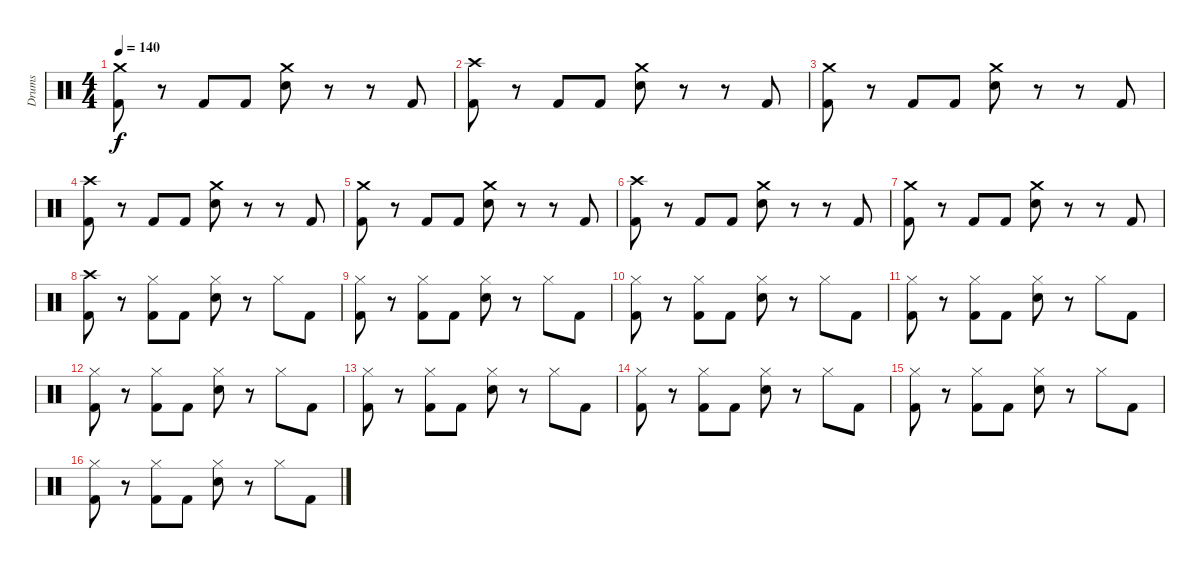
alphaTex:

\track ("Drums" "Drums") {instrument percussion}
\staff {score}
\articulation defaults
\ts (4 4)
\tempo 140
\clef neutral
\ks c
("Crash medium (hit)" "Kick (hit) 2").8{dy f} r.8 "Kick (hit) 2".8 "Kick (hit) 2".8 ("Crash medium (hit)" "Snare (hit) 2").8 r.8 r.8 "Kick (hit) 2".8 |
("Crash high (hit)" "Kick (hit) 2").8 r.8 "Kick (hit) 2".8 "Kick (hit) 2".8 ("Crash medium (hit)" "Snare (hit) 2").8 r.8 r.8 "Kick (hit) 2".8 |
("Crash medium (hit)" "Kick (hit) 2").8 r.8 "Kick (hit) 2".8 "Kick (hit) 2".8 ("Crash medium (hit)" "Snare (hit) 2").8 r.8 r.8 "Kick (hit) 2".8 |
("Crash high (hit)" "Kick (hit) 2").8 r.8 "Kick (hit) 2".8 "Kick (hit) 2".8 ("Crash medium (hit)" "Snare (hit) 2").8 r.8 r.8 "Kick (hit) 2".8 |
("Crash medium (hit)" "Kick (hit) 2").8 r.8 "Kick (hit) 2".8 "Kick (hit) 2".8 ("Crash medium (hit)" "Snare (hit) 2").8 r.8 r.8 "Kick (hit) 2".8 |
("Crash high (hit)" "Kick (hit) 2").8 r.8 "Kick (hit) 2".8 "Kick (hit) 2".8 ("Crash medium (hit)" "Snare (hit) 2").8 r.8 r.8 "Kick (hit) 2".8 |
("Crash medium (hit)" "Kick (hit) 2").8 r.8 "Kick (hit) 2".8 "Kick (hit) 2".8 ("Crash medium (hit)" "Snare (hit) 2").8 r.8 r.8 "Kick (hit) 2".8 |
("Crash high (hit)" "Kick (hit) 2").8 r.8 ("Hi-Hat (closed)" "Kick (hit) 2").8 "Kick (hit) 2".8 ("Hi-Hat (closed)" "Snare (hit) 2").8 r.8 "Hi-Hat (closed)".8 "Kick (hit) 2".8 |
("Hi-Hat (closed)" "Kick (hit) 2").8 r.8 ("Hi-Hat (closed)" "Kick (hit) 2").8 "Kick (hit) 2".8 ("Hi-Hat (closed)" "Snare (hit) 2").8 r.8 "Hi-Hat (closed)".8 "Kick (hit) 2".8 |
("Hi-Hat (closed)" "Kick (hit) 2").8 r.8 ("Hi-Hat (closed)" "Kick (hit) 2").8 "Kick (hit) 2".8 ("Hi-Hat (closed)" "Snare (hit) 2").8 r.8 "Hi-Hat (closed)".8 "Kick (hit) 2".8 |
("Hi-Hat (closed)" "Kick (hit) 2").8 r.8 ("Hi-Hat (closed)" "Kick (hit) 2").8 "Kick (hit) 2".8 ("Hi-Hat (closed)" "Snare (hit) 2").8 r.8 "Hi-Hat (closed)".8 "Kick (hit) 2".8 |
("Hi-Hat (closed)" "Kick (hit) 2").8 r.8 ("Hi-Hat (closed)" "Kick (hit) 2").8 "Kick (hit) 2".8 ("Hi-Hat (closed)" "Snare (hit) 2").8 r.8 "Hi-Hat (closed)".8 "Kick (hit) 2".8 |
("Hi-Hat (closed)" "Kick (hit) 2").8 r.8 ("Hi-Hat (closed)" "Kick (hit) 2").8 "Kick (hit) 2".8 ("Hi-Hat (closed)" "Snare (hit) 2").8 r.8 "Hi-Hat (closed)".8 "Kick (hit) 2".8 |
("Hi-Hat (closed)" "Kick (hit) 2").8 r.8 ("Hi-Hat (closed)" "Kick (hit) 2").8 "Kick (hit) 2".8 ("Hi-Hat (closed)" "Snare (hit) 2").8 r.8 "Hi-Hat (closed)".8 "Kick (hit) 2".8 |
("Hi-Hat (closed)" "Kick (hit) 2").8 r.8 ("Hi-Hat (closed)" "Kick (hit) 2").8 "Kick (hit) 2".8 ("Hi-Hat (closed)" "Snare (hit) 2").8 r.8 "Hi-Hat (closed)".8 "Kick (hit) 2".8 |
("Hi-Hat (closed)" "Kick (hit) 2").8 r.8 ("Hi-Hat (closed)" "Kick (hit) 2").8 "Kick (hit) 2".8 ("Hi-Hat (closed)" "Snare (hit) 2").8 r.8 "Hi-Hat (closed)".8 "Kick (hit) 2".8
